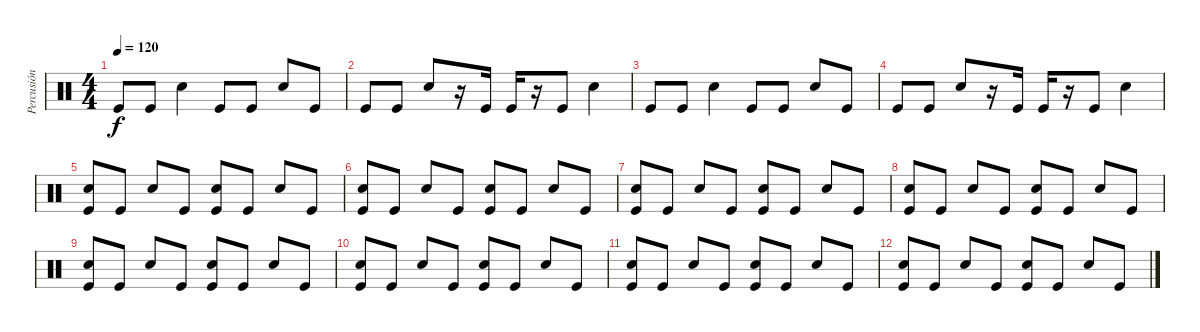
\track ("Percusión" "Percusión") {instrument percussion}
\staff {score}
\articulation defaults
\ts (4 4)
\tempo 120
\clef neutral
\ks c "Kick (hit)".8{dy f} "Kick (hit)".8 "Snare (hit) 2".4 "Kick (hit)".8 "Kick (hit)".8 "Snare (hit) 2".8 "Kick (hit)".8
|
"Kick (hit)".8 "Kick (hit)".8 "Snare (hit) 2".8 r.16 "Kick (hit)".16 "Kick (hit)".16 r.16 "Kick (hit)".8 "Snare (hit) 2".4 |
"Kick (hit)".8 "Kick (hit)".8 "Snare (hit) 2".4 "Kick (hit)".8 "Kick (hit)".8 "Snare (hit) 2".8 "Kick (hit)".8 |
"Kick (hit)".8 "Kick (hit)".8 "Snare (hit) 2".8 r.16 "Kick (hit)".16 "Kick (hit)".16 r.16 "Kick (hit)".8 "Snare (hit) 2".4 |
("Snare (hit) 2" "Kick (hit)").8 "Kick (hit)".8 "Snare (hit) 2".8 "Kick (hit)".8 ("Snare (hit) 2" "Kick (hit)").8 "Kick (hit)".8 "Snare (hit) 2".8 "Kick (hit)".8 |
("Snare (hit) 2" "Kick (hit)").8 "Kick (hit)".8 "Snare (hit) 2".8 "Kick (hit)".8 ("Snare (hit) 2" "Kick (hit)").8 "Kick (hit)".8 "Snare (hit) 2".8 "Kick (hit)".8 |
("Snare (hit) 2" "Kick (hit)").8 "Kick (hit)".8 "Snare (hit) 2".8 "Kick (hit)".8 ("Snare (hit) 2" "Kick (hit)").8 "Kick (hit)".8 "Snare (hit) 2".8 "Kick (hit)".8 |
("Snare (hit) 2" "Kick (hit)").8 "Kick (hit)".8 "Snare (hit) 2".8 "Kick (hit)".8 ("Snare (hit) 2" "Kick (hit)").8 "Kick (hit)".8 "Snare (hit) 2".8 "Kick (hit)".8 |
("Snare (hit) 2" "Kick (hit)").8 "Kick (hit)".8 "Snare (hit) 2".8 "Kick (hit)".8 ("Snare (hit) 2" "Kick (hit)").8 "Kick (hit)".8 "Snare (hit) 2".8 "Kick (hit)".8 |
("Snare (hit) 2" "Kick (hit)").8 "Kick (hit)".8 "Snare (hit) 2".8 "Kick (hit)".8 ("Snare (hit) 2" "Kick (hit)").8 "Kick (hit)".8 "Snare (hit) 2".8 "Kick (hit)".8 |
("Snare (hit) 2" "Kick (hit)").8 "Kick (hit)".8 "Snare (hit) 2".8 "Kick (hit)".8 ("Snare (hit) 2" "Kick (hit)").8 "Kick (hit)".8 "Snare (hit) 2".8 "Kick (hit)".8 |
("Snare (hit) 2" "Kick (hit)").8 "Kick (hit)".8 "Snare (hit) 2".8 "Kick (hit)".8 ("Snare (hit) 2" "Kick (hit)").8 "Kick (hit)".8 "Snare (hit) 2".8 "Kick (hit)".8
